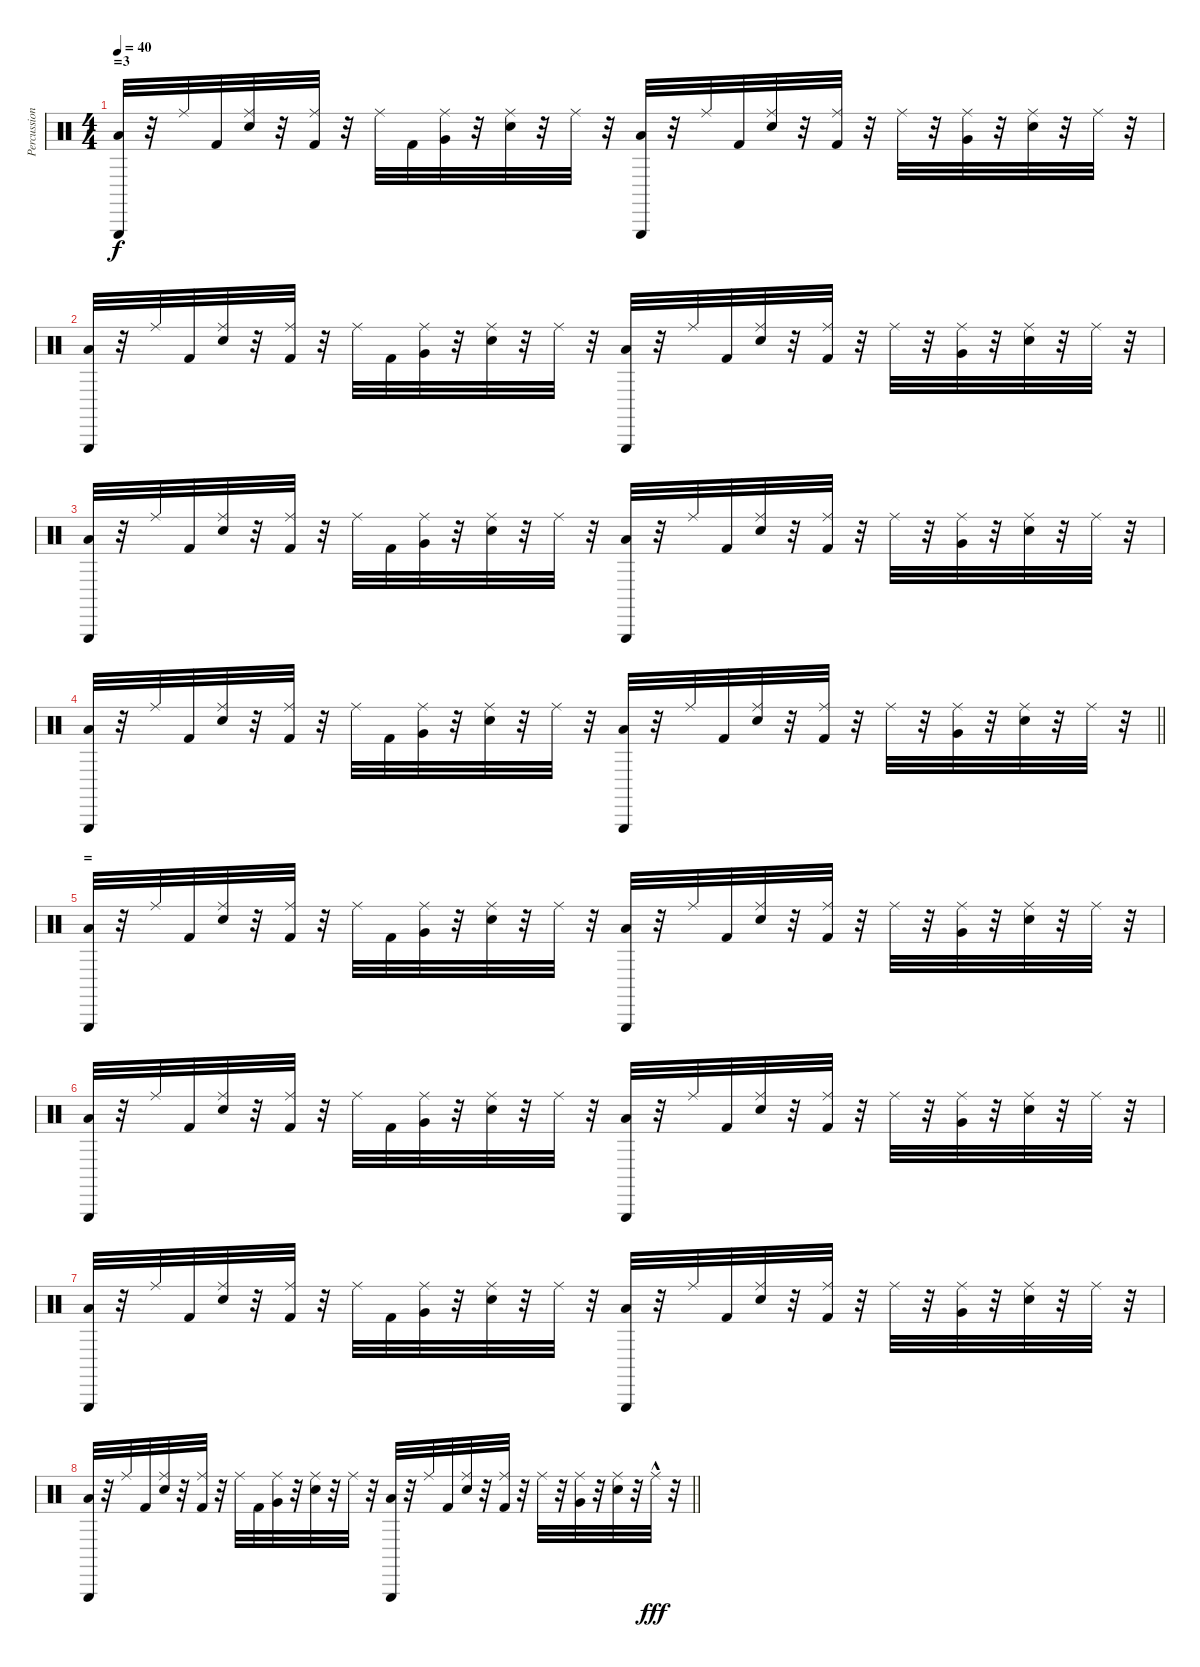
\track ("Percussion" "Percussion") {instrument percussion}
\staff {score}
\articulation defaults
\ts (4 4)
\section ("" "=3")
\tempo 40
\clef neutral
\ks c
("Low Floor Tom (hit)" "Triangle (hit)").32{dy f} r.32 "Ride (middle)".32 "Kick (hit) 2".32 ("Electric Snare (hit)" "Ride (middle)").32 r.32 ("Kick (hit) 2" "Ride (middle)").32 r.32 "Ride (middle)".32 "Kick (hit) 2".32 ("Very Low Tom (hit)" "Ride (middle)").32 r.32 ("Electric Snare (hit)" "Ride (middle)").32 r.32 "Ride (middle)".32 r.32 ("Low Floor Tom (hit)" "Triangle (hit)").32 r.32 "Ride (middle)".32 "Kick (hit) 2".32 ("Electric Snare (hit)" "Ride (middle)").32 r.32 ("Kick (hit) 2" "Ride (middle)").32 r.32 "Ride (middle)".32 r.32 ("Very Low Tom (hit)" "Ride (middle)").32 r.32 ("Electric Snare (hit)" "Ride (middle)").32 r.32 "Ride (middle)".32 r.32 |
("Low Floor Tom (hit)" "Triangle (hit)").32 r.32 "Ride (middle)".32 "Kick (hit) 2".32 ("Electric Snare (hit)" "Ride (middle)").32 r.32 ("Kick (hit) 2" "Ride (middle)").32 r.32 "Ride (middle)".32 "Kick (hit) 2".32 ("Very Low Tom (hit)" "Ride (middle)").32 r.32 ("Electric Snare (hit)" "Ride (middle)").32 r.32 "Ride (middle)".32 r.32 ("Low Floor Tom (hit)" "Triangle (hit)").32 r.32 "Ride (middle)".32 "Kick (hit) 2".32 ("Electric Snare (hit)" "Ride (middle)").32 r.32 ("Kick (hit) 2" "Ride (middle)").32 r.32 "Ride (middle)".32 r.32 ("Very Low Tom (hit)" "Ride (middle)").32 r.32 ("Electric Snare (hit)" "Ride (middle)").32 r.32 "Ride (middle)".32 r.32 |
("Low Floor Tom (hit)" "Triangle (hit)").32 r.32 "Ride (middle)".32 "Kick (hit) 2".32 ("Electric Snare (hit)" "Ride (middle)").32 r.32 ("Kick (hit) 2" "Ride (middle)").32 r.32 "Ride (middle)".32 "Kick (hit) 2".32 ("Very Low Tom (hit)" "Ride (middle)").32 r.32 ("Electric Snare (hit)" "Ride (middle)").32 r.32 "Ride (middle)".32 r.32 ("Low Floor Tom (hit)" "Triangle (hit)").32 r.32 "Ride (middle)".32 "Kick (hit) 2".32 ("Electric Snare (hit)" "Ride (middle)").32 r.32 ("Kick (hit) 2" "Ride (middle)").32 r.32 "Ride (middle)".32 r.32 ("Very Low Tom (hit)" "Ride (middle)").32 r.32 ("Electric Snare (hit)" "Ride (middle)").32 r.32 "Ride (middle)".32 r.32 |
\barLineRight lightlight
("Low Floor Tom (hit)" "Triangle (hit)").32 r.32 "Ride (middle)".32 "Kick (hit) 2".32 ("Electric Snare (hit)" "Ride (middle)").32 r.32 ("Kick (hit) 2" "Ride (middle)").32 r.32 "Ride (middle)".32 "Kick (hit) 2".32 ("Very Low Tom (hit)" "Ride (middle)").32 r.32 ("Electric Snare (hit)" "Ride (middle)").32 r.32 "Ride (middle)".32 r.32 ("Low Floor Tom (hit)" "Triangle (hit)").32 r.32 "Ride (middle)".32 "Kick (hit) 2".32 ("Electric Snare (hit)" "Ride (middle)").32 r.32 ("Kick (hit) 2" "Ride (middle)").32 r.32 "Ride (middle)".32 r.32 ("Very Low Tom (hit)" "Ride (middle)").32 r.32 ("Electric Snare (hit)" "Ride (middle)").32 r.32 "Ride (middle)".32 r.32 |
\section ("" "=")
("Low Floor Tom (hit)" "Triangle (hit)").32 r.32 "Ride (middle)".32 "Kick (hit) 2".32 ("Electric Snare (hit)" "Ride (middle)").32 r.32 ("Kick (hit) 2" "Ride (middle)").32 r.32 "Ride (middle)".32 "Kick (hit) 2".32 ("Very Low Tom (hit)" "Ride (middle)").32 r.32 ("Electric Snare (hit)" "Ride (middle)").32 r.32 "Ride (middle)".32 r.32 ("Low Floor Tom (hit)" "Triangle (hit)").32 r.32 "Ride (middle)".32 "Kick (hit) 2".32 ("Electric Snare (hit)" "Ride (middle)").32 r.32 ("Kick (hit) 2" "Ride (middle)").32 r.32 "Ride (middle)".32 r.32 ("Very Low Tom (hit)" "Ride (middle)").32 r.32 ("Electric Snare (hit)" "Ride (middle)").32 r.32 "Ride (middle)".32 r.32 |
("Low Floor Tom (hit)" "Triangle (hit)").32 r.32 "Ride (middle)".32 "Kick (hit) 2".32 ("Electric Snare (hit)" "Ride (middle)").32 r.32 ("Kick (hit) 2" "Ride (middle)").32 r.32 "Ride (middle)".32 "Kick (hit) 2".32 ("Very Low Tom (hit)" "Ride (middle)").32 r.32 ("Electric Snare (hit)" "Ride (middle)").32 r.32 "Ride (middle)".32 r.32 ("Low Floor Tom (hit)" "Triangle (hit)").32 r.32 "Ride (middle)".32 "Kick (hit) 2".32 ("Electric Snare (hit)" "Ride (middle)").32 r.32 ("Kick (hit) 2" "Ride (middle)").32 r.32 "Ride (middle)".32 r.32 ("Very Low Tom (hit)" "Ride (middle)").32 r.32 ("Electric Snare (hit)" "Ride (middle)").32 r.32 "Ride (middle)".32 r.32 |
("Low Floor Tom (hit)" "Triangle (hit)").32 r.32 "Ride (middle)".32 "Kick (hit) 2".32 ("Electric Snare (hit)" "Ride (middle)").32 r.32 ("Kick (hit) 2" "Ride (middle)").32 r.32 "Ride (middle)".32 "Kick (hit) 2".32 ("Very Low Tom (hit)" "Ride (middle)").32 r.32 ("Electric Snare (hit)" "Ride (middle)").32 r.32 "Ride (middle)".32 r.32 ("Low Floor Tom (hit)" "Triangle (hit)").32 r.32 "Ride (middle)".32 "Kick (hit) 2".32 ("Electric Snare (hit)" "Ride (middle)").32 r.32 ("Kick (hit) 2" "Ride (middle)").32 r.32 "Ride (middle)".32 r.32 ("Very Low Tom (hit)" "Ride (middle)").32 r.32 ("Electric Snare (hit)" "Ride (middle)").32 r.32 "Ride (middle)".32 r.32 |
\barLineRight lightlight
("Low Floor Tom (hit)" "Triangle (hit)").32 r.32 "Ride (middle)".32 "Kick (hit) 2".32 ("Electric Snare (hit)" "Ride (middle)").32 r.32 ("Kick (hit) 2" "Ride (middle)").32 r.32 "Ride (middle)".32 "Kick (hit) 2".32 ("Very Low Tom (hit)" "Ride (middle)").32 r.32 ("Electric Snare (hit)" "Ride (middle)").32 r.32 "Ride (middle)".32 r.32 ("Low Floor Tom (hit)" "Triangle (hit)").32 r.32 "Ride (middle)".32 "Kick (hit) 2".32 ("Electric Snare (hit)" "Ride (middle)").32 r.32 ("Kick (hit) 2" "Ride (middle)").32 r.32 "Ride (middle)".32 r.32 ("Very Low Tom (hit)" "Ride (middle)").32 r.32 ("Electric Snare (hit)" "Ride (middle)").32 r.32 "Ride (middle)"{hac}.32{dy fff} r.32
